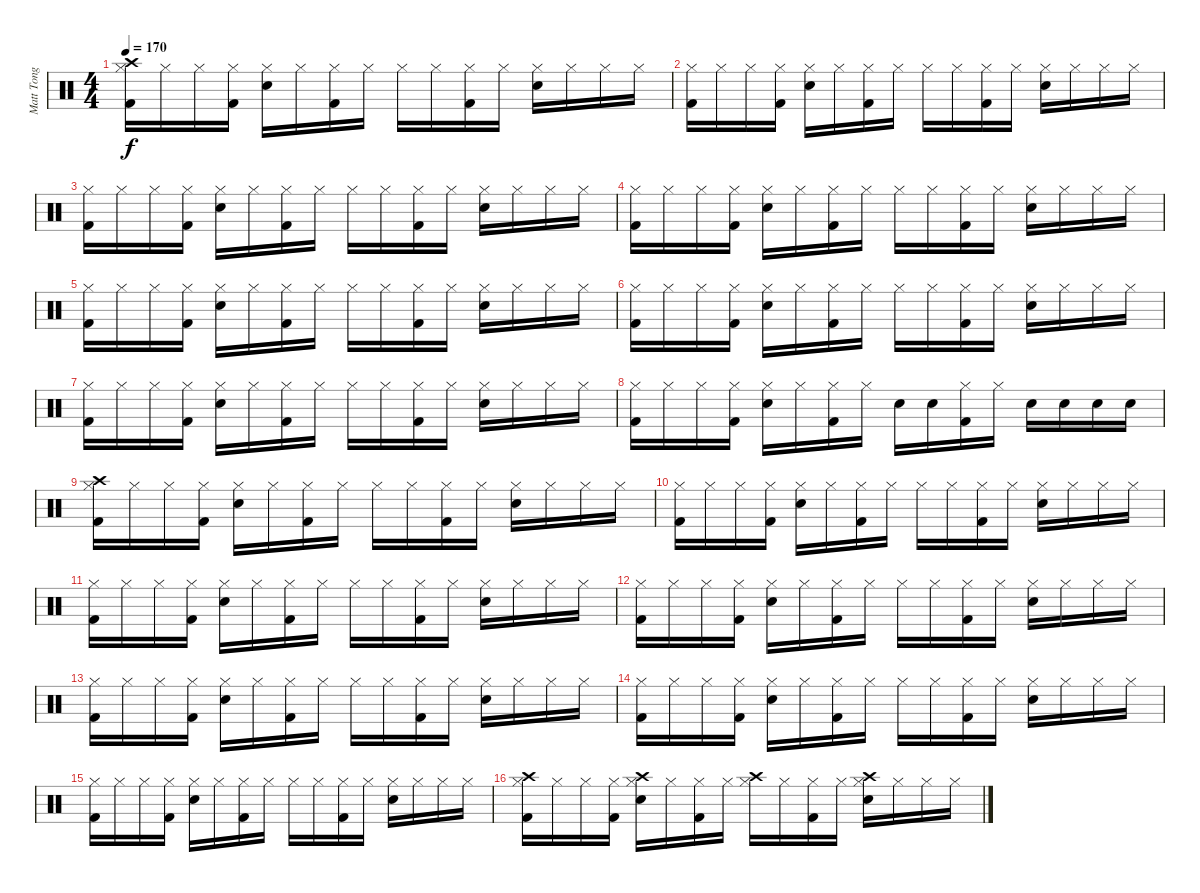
\track ("Matt Tong" "Matt Tong") {instrument percussion}
\staff {score}
\articulation defaults
\ts (4 4)
\tempo 170
\clef neutral
\ks c
("Crash high (hit)" "Hi-Hat (closed)" "Kick (hit) 2").16{dy f} "Hi-Hat (closed)".16 "Hi-Hat (closed)".16 ("Hi-Hat (closed)" "Kick (hit) 2").16 ("Hi-Hat (closed)" "Electric Snare (hit)").16 "Hi-Hat (closed)".16 ("Hi-Hat (closed)" "Kick (hit) 2").16 "Hi-Hat (closed)".16 "Hi-Hat (closed)".16 "Hi-Hat (closed)".16 ("Hi-Hat (closed)" "Kick (hit) 2").16 "Hi-Hat (closed)".16 ("Hi-Hat (closed)" "Electric Snare (hit)").16 "Hi-Hat (closed)".16 "Hi-Hat (closed)".16 "Hi-Hat (closed)".16 |
("Hi-Hat (closed)" "Kick (hit) 2").16 "Hi-Hat (closed)".16 "Hi-Hat (closed)".16 ("Hi-Hat (closed)" "Kick (hit) 2").16 ("Hi-Hat (closed)" "Electric Snare (hit)").16 "Hi-Hat (closed)".16 ("Hi-Hat (closed)" "Kick (hit) 2").16 "Hi-Hat (closed)".16 "Hi-Hat (closed)".16 "Hi-Hat (closed)".16 ("Hi-Hat (closed)" "Kick (hit) 2").16 "Hi-Hat (closed)".16 ("Hi-Hat (closed)" "Electric Snare (hit)").16 "Hi-Hat (closed)".16 "Hi-Hat (closed)".16 "Hi-Hat (closed)".16 |
("Hi-Hat (closed)" "Kick (hit) 2").16 "Hi-Hat (closed)".16 "Hi-Hat (closed)".16 ("Hi-Hat (closed)" "Kick (hit) 2").16 ("Hi-Hat (closed)" "Electric Snare (hit)").16 "Hi-Hat (closed)".16 ("Hi-Hat (closed)" "Kick (hit) 2").16 "Hi-Hat (closed)".16 "Hi-Hat (closed)".16 "Hi-Hat (closed)".16 ("Hi-Hat (closed)" "Kick (hit) 2").16 "Hi-Hat (closed)".16 ("Hi-Hat (closed)" "Electric Snare (hit)").16 "Hi-Hat (closed)".16 "Hi-Hat (closed)".16 "Hi-Hat (closed)".16 |
("Hi-Hat (closed)" "Kick (hit) 2").16 "Hi-Hat (closed)".16 "Hi-Hat (closed)".16 ("Hi-Hat (closed)" "Kick (hit) 2").16 ("Hi-Hat (closed)" "Electric Snare (hit)").16 "Hi-Hat (closed)".16 ("Hi-Hat (closed)" "Kick (hit) 2").16 "Hi-Hat (closed)".16 "Hi-Hat (closed)".16 "Hi-Hat (closed)".16 ("Hi-Hat (closed)" "Kick (hit) 2").16 "Hi-Hat (closed)".16 ("Hi-Hat (closed)" "Electric Snare (hit)").16 "Hi-Hat (closed)".16 "Hi-Hat (closed)".16 "Hi-Hat (closed)".16 |
("Hi-Hat (closed)" "Kick (hit) 2").16 "Hi-Hat (closed)".16 "Hi-Hat (closed)".16 ("Hi-Hat (closed)" "Kick (hit) 2").16 ("Hi-Hat (closed)" "Electric Snare (hit)").16 "Hi-Hat (closed)".16 ("Hi-Hat (closed)" "Kick (hit) 2").16 "Hi-Hat (closed)".16 "Hi-Hat (closed)".16 "Hi-Hat (closed)".16 ("Hi-Hat (closed)" "Kick (hit) 2").16 "Hi-Hat (closed)".16 ("Hi-Hat (closed)" "Electric Snare (hit)").16 "Hi-Hat (closed)".16 "Hi-Hat (closed)".16 "Hi-Hat (closed)".16 |
("Hi-Hat (closed)" "Kick (hit) 2").16 "Hi-Hat (closed)".16 "Hi-Hat (closed)".16 ("Hi-Hat (closed)" "Kick (hit) 2").16 ("Hi-Hat (closed)" "Electric Snare (hit)").16 "Hi-Hat (closed)".16 ("Hi-Hat (closed)" "Kick (hit) 2").16 "Hi-Hat (closed)".16 "Hi-Hat (closed)".16 "Hi-Hat (closed)".16 ("Hi-Hat (closed)" "Kick (hit) 2").16 "Hi-Hat (closed)".16 ("Hi-Hat (closed)" "Electric Snare (hit)").16 "Hi-Hat (closed)".16 "Hi-Hat (closed)".16 "Hi-Hat (closed)".16 |
("Hi-Hat (closed)" "Kick (hit) 2").16 "Hi-Hat (closed)".16 "Hi-Hat (closed)".16 ("Hi-Hat (closed)" "Kick (hit) 2").16 ("Hi-Hat (closed)" "Electric Snare (hit)").16 "Hi-Hat (closed)".16 ("Hi-Hat (closed)" "Kick (hit) 2").16 "Hi-Hat (closed)".16 "Hi-Hat (closed)".16 "Hi-Hat (closed)".16 ("Hi-Hat (closed)" "Kick (hit) 2").16 "Hi-Hat (closed)".16 ("Hi-Hat (closed)" "Electric Snare (hit)").16 "Hi-Hat (closed)".16 "Hi-Hat (closed)".16 "Hi-Hat (closed)".16 |
("Hi-Hat (closed)" "Kick (hit) 2").16 "Hi-Hat (closed)".16 "Hi-Hat (closed)".16 ("Hi-Hat (closed)" "Kick (hit) 2").16 ("Hi-Hat (closed)" "Electric Snare (hit)").16 "Hi-Hat (closed)".16 ("Hi-Hat (closed)" "Kick (hit) 2").16 "Hi-Hat (closed)".16 "Electric Snare (hit)".16 "Electric Snare (hit)".16 ("Hi-Hat (closed)" "Kick (hit) 2").16 "Hi-Hat (closed)".16 "Electric Snare (hit)".16 "Electric Snare (hit)".16 "Electric Snare (hit)".16 "Electric Snare (hit)".16 |
("Crash high (hit)" "Hi-Hat (closed)" "Kick (hit) 2").16 "Hi-Hat (closed)".16 "Hi-Hat (closed)".16 ("Hi-Hat (closed)" "Kick (hit) 2").16 ("Hi-Hat (closed)" "Electric Snare (hit)").16 "Hi-Hat (closed)".16 ("Hi-Hat (closed)" "Kick (hit) 2").16 "Hi-Hat (closed)".16 "Hi-Hat (closed)".16 "Hi-Hat (closed)".16 ("Hi-Hat (closed)" "Kick (hit) 2").16 "Hi-Hat (closed)".16 ("Hi-Hat (closed)" "Electric Snare (hit)").16 "Hi-Hat (closed)".16 "Hi-Hat (closed)".16 "Hi-Hat (closed)".16 |
("Hi-Hat (closed)" "Kick (hit) 2").16 "Hi-Hat (closed)".16 "Hi-Hat (closed)".16 ("Hi-Hat (closed)" "Kick (hit) 2").16 ("Hi-Hat (closed)" "Electric Snare (hit)").16 "Hi-Hat (closed)".16 ("Hi-Hat (closed)" "Kick (hit) 2").16 "Hi-Hat (closed)".16 "Hi-Hat (closed)".16 "Hi-Hat (closed)".16 ("Hi-Hat (closed)" "Kick (hit) 2").16 "Hi-Hat (closed)".16 ("Hi-Hat (closed)" "Electric Snare (hit)").16 "Hi-Hat (closed)".16 "Hi-Hat (closed)".16 "Hi-Hat (closed)".16 |
("Hi-Hat (closed)" "Kick (hit) 2").16 "Hi-Hat (closed)".16 "Hi-Hat (closed)".16 ("Hi-Hat (closed)" "Kick (hit) 2").16 ("Hi-Hat (closed)" "Electric Snare (hit)").16 "Hi-Hat (closed)".16 ("Hi-Hat (closed)" "Kick (hit) 2").16 "Hi-Hat (closed)".16 "Hi-Hat (closed)".16 "Hi-Hat (closed)".16 ("Hi-Hat (closed)" "Kick (hit) 2").16 "Hi-Hat (closed)".16 ("Hi-Hat (closed)" "Electric Snare (hit)").16 "Hi-Hat (closed)".16 "Hi-Hat (closed)".16 "Hi-Hat (closed)".16 |
("Hi-Hat (closed)" "Kick (hit) 2").16 "Hi-Hat (closed)".16 "Hi-Hat (closed)".16 ("Hi-Hat (closed)" "Kick (hit) 2").16 ("Hi-Hat (closed)" "Electric Snare (hit)").16 "Hi-Hat (closed)".16 ("Hi-Hat (closed)" "Kick (hit) 2").16 "Hi-Hat (closed)".16 "Hi-Hat (closed)".16 "Hi-Hat (closed)".16 ("Hi-Hat (closed)" "Kick (hit) 2").16 "Hi-Hat (closed)".16 ("Hi-Hat (closed)" "Electric Snare (hit)").16 "Hi-Hat (closed)".16 "Hi-Hat (closed)".16 "Hi-Hat (closed)".16 |
("Hi-Hat (closed)" "Kick (hit) 2").16 "Hi-Hat (closed)".16 "Hi-Hat (closed)".16 ("Hi-Hat (closed)" "Kick (hit) 2").16 ("Hi-Hat (closed)" "Electric Snare (hit)").16 "Hi-Hat (closed)".16 ("Hi-Hat (closed)" "Kick (hit) 2").16 "Hi-Hat (closed)".16 "Hi-Hat (closed)".16 "Hi-Hat (closed)".16 ("Hi-Hat (closed)" "Kick (hit) 2").16 "Hi-Hat (closed)".16 ("Hi-Hat (closed)" "Electric Snare (hit)").16 "Hi-Hat (closed)".16 "Hi-Hat (closed)".16 "Hi-Hat (closed)".16 |
("Hi-Hat (closed)" "Kick (hit) 2").16 "Hi-Hat (closed)".16 "Hi-Hat (closed)".16 ("Hi-Hat (closed)" "Kick (hit) 2").16 ("Hi-Hat (closed)" "Electric Snare (hit)").16 "Hi-Hat (closed)".16 ("Hi-Hat (closed)" "Kick (hit) 2").16 "Hi-Hat (closed)".16 "Hi-Hat (closed)".16 "Hi-Hat (closed)".16 ("Hi-Hat (closed)" "Kick (hit) 2").16 "Hi-Hat (closed)".16 ("Hi-Hat (closed)" "Electric Snare (hit)").16 "Hi-Hat (closed)".16 "Hi-Hat (closed)".16 "Hi-Hat (closed)".16 |
("Hi-Hat (closed)" "Kick (hit) 2").16 "Hi-Hat (closed)".16 "Hi-Hat (closed)".16 ("Hi-Hat (closed)" "Kick (hit) 2").16 ("Hi-Hat (closed)" "Electric Snare (hit)").16 "Hi-Hat (closed)".16 ("Hi-Hat (closed)" "Kick (hit) 2").16 "Hi-Hat (closed)".16 "Hi-Hat (closed)".16 "Hi-Hat (closed)".16 ("Hi-Hat (closed)" "Kick (hit) 2").16 "Hi-Hat (closed)".16 ("Hi-Hat (closed)" "Electric Snare (hit)").16 "Hi-Hat (closed)".16 "Hi-Hat (closed)".16 "Hi-Hat (closed)".16 |
("Crash high (hit)" "Hi-Hat (closed)" "Kick (hit) 2").16 "Hi-Hat (closed)".16 "Hi-Hat (closed)".16 ("Hi-Hat (closed)" "Kick (hit) 2").16 ("Crash high (hit)" "Hi-Hat (closed)" "Electric Snare (hit)").16 "Hi-Hat (closed)".16 ("Hi-Hat (closed)" "Kick (hit) 2").16 "Hi-Hat (closed)".16 ("Crash high (hit)" "Hi-Hat (closed)").16 "Hi-Hat (closed)".16 ("Hi-Hat (closed)" "Kick (hit) 2").16 "Hi-Hat (closed)".16 ("Crash high (hit)" "Hi-Hat (closed)" "Electric Snare (hit)").16 "Hi-Hat (closed)".16 "Hi-Hat (closed)".16 "Hi-Hat (closed)".16
